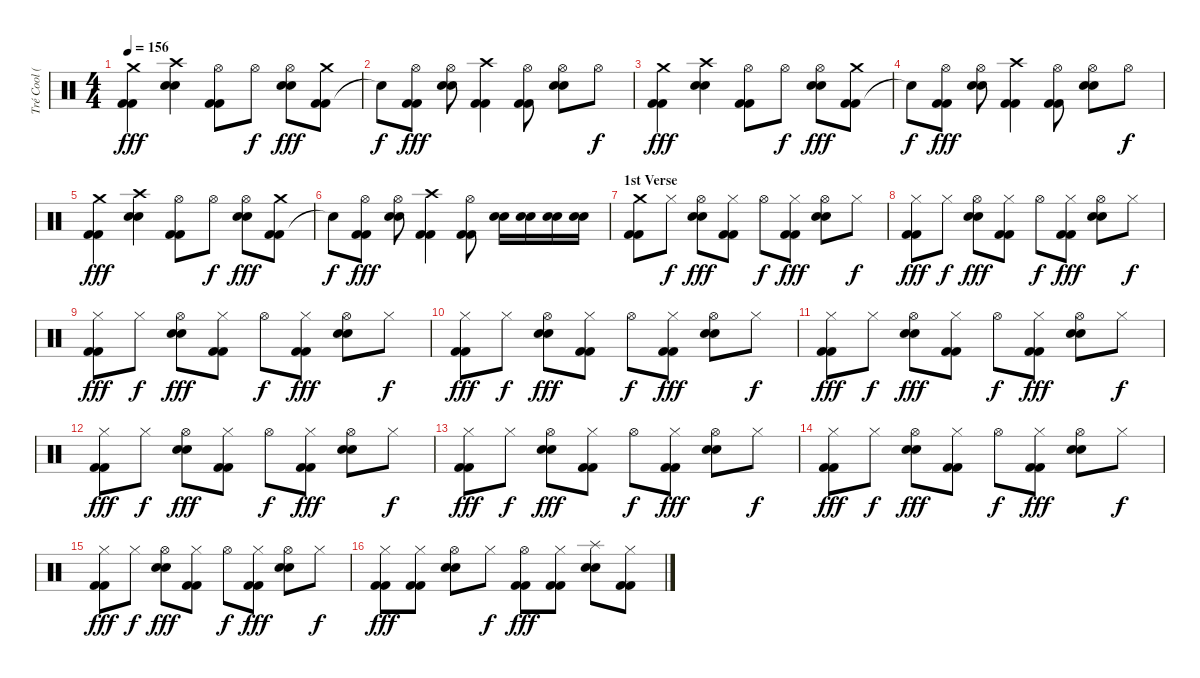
\track ("Tré Cool (Drums)" "Tré Cool (") {instrument percussion}
\staff {score}
\articulation defaults
\ts (4 4)
\tempo 156
\clef neutral
\ks c
("Kick (hit) 2" "Kick (hit) 2" "Crash medium (hit)").4{dy fff} ("Electric Snare (hit)" "Electric Snare (hit)" "Crash high (hit)").4 ("Kick (hit) 2" "Kick (hit) 2" "Hi-Hat (open)").8 "Hi-Hat (open)".8{dy f} ("Electric Snare (hit)" "Electric Snare (hit)" "Hi-Hat (open)").8{dy fff} ("Kick (hit) 2" "Kick (hit) 2" "Crash medium (hit)").8 |
"Snare (hit)"{t}.8{dy f} ("Kick (hit) 2" "Kick (hit) 2" "Hi-Hat (open)").8{dy fff} ("Electric Snare (hit)" "Electric Snare (hit)" "Hi-Hat (open)").8 ("Kick (hit) 2" "Kick (hit) 2" "Crash high (hit)").4 ("Kick (hit) 2" "Kick (hit) 2" "Hi-Hat (open)").8 ("Electric Snare (hit)" "Electric Snare (hit)" "Hi-Hat (open)").8 "Hi-Hat (open)".8{dy f} |
("Kick (hit) 2" "Kick (hit) 2" "Crash medium (hit)").4{dy fff} ("Electric Snare (hit)" "Electric Snare (hit)" "Crash high (hit)").4 ("Kick (hit) 2" "Kick (hit) 2" "Hi-Hat (open)").8 "Hi-Hat (open)".8{dy f} ("Electric Snare (hit)" "Electric Snare (hit)" "Hi-Hat (open)").8{dy fff} ("Kick (hit) 2" "Kick (hit) 2" "Crash medium (hit)").8 |
"Snare (hit)"{t}.8{dy f} ("Kick (hit) 2" "Kick (hit) 2" "Hi-Hat (open)").8{dy fff} ("Electric Snare (hit)" "Electric Snare (hit)" "Hi-Hat (open)").8 ("Kick (hit) 2" "Kick (hit) 2" "Crash high (hit)").4 ("Kick (hit) 2" "Kick (hit) 2" "Hi-Hat (open)").8 ("Electric Snare (hit)" "Electric Snare (hit)" "Hi-Hat (open)").8 "Hi-Hat (open)".8{dy f} |
("Kick (hit) 2" "Kick (hit) 2" "Crash medium (hit)").4{dy fff} ("Electric Snare (hit)" "Electric Snare (hit)" "Crash high (hit)").4 ("Kick (hit) 2" "Kick (hit) 2" "Hi-Hat (open)").8 "Hi-Hat (open)".8{dy f} ("Electric Snare (hit)" "Electric Snare (hit)" "Hi-Hat (open)").8{dy fff} ("Kick (hit) 2" "Kick (hit) 2" "Crash medium (hit)").8 |
"Snare (hit)"{t}.8{dy f} ("Kick (hit) 2" "Kick (hit) 2" "Hi-Hat (open)").8{dy fff} ("Electric Snare (hit)" "Electric Snare (hit)" "Hi-Hat (open)").8 ("Kick (hit) 2" "Kick (hit) 2" "Crash high (hit)").4 ("Kick (hit) 2" "Kick (hit) 2" "Hi-Hat (open)").8 ("Electric Snare (hit)" "Electric Snare (hit)").16 ("Electric Snare (hit)" "Electric Snare (hit)").16 ("Electric Snare (hit)" "Electric Snare (hit)").16 ("Electric Snare (hit)" "Electric Snare (hit)").16 |
\section ("" "1st Verse")
("Kick (hit) 2" "Kick (hit) 2" "Crash medium (hit)").8 "Hi-Hat (closed)".8{dy f} ("Electric Snare (hit)" "Electric Snare (hit)" "Hi-Hat (open)").8{dy fff} ("Kick (hit) 2" "Kick (hit) 2" "Hi-Hat (closed)").8 "Hi-Hat (open)".8{dy f} ("Kick (hit) 2" "Kick (hit) 2" "Hi-Hat (closed)").8{dy fff} ("Electric Snare (hit)" "Electric Snare (hit)" "Hi-Hat (open)").8 "Hi-Hat (closed)".8{dy f} |
("Kick (hit) 2" "Kick (hit) 2" "Hi-Hat (closed)").8{dy fff} "Hi-Hat (closed)".8{dy f} ("Electric Snare (hit)" "Electric Snare (hit)" "Hi-Hat (open)").8{dy fff} ("Kick (hit) 2" "Kick (hit) 2" "Hi-Hat (closed)").8 "Hi-Hat (open)".8{dy f} ("Kick (hit) 2" "Kick (hit) 2" "Hi-Hat (closed)").8{dy fff} ("Electric Snare (hit)" "Electric Snare (hit)" "Hi-Hat (open)").8 "Hi-Hat (closed)".8{dy f} |
("Kick (hit) 2" "Kick (hit) 2" "Hi-Hat (closed)").8{dy fff} "Hi-Hat (closed)".8{dy f} ("Electric Snare (hit)" "Electric Snare (hit)" "Hi-Hat (open)").8{dy fff} ("Kick (hit) 2" "Kick (hit) 2" "Hi-Hat (closed)").8 "Hi-Hat (open)".8{dy f} ("Kick (hit) 2" "Kick (hit) 2" "Hi-Hat (closed)").8{dy fff} ("Electric Snare (hit)" "Electric Snare (hit)" "Hi-Hat (open)").8 "Hi-Hat (closed)".8{dy f} |
("Kick (hit) 2" "Kick (hit) 2" "Hi-Hat (closed)").8{dy fff} "Hi-Hat (closed)".8{dy f} ("Electric Snare (hit)" "Electric Snare (hit)" "Hi-Hat (open)").8{dy fff} ("Kick (hit) 2" "Kick (hit) 2" "Hi-Hat (closed)").8 "Hi-Hat (open)".8{dy f} ("Kick (hit) 2" "Kick (hit) 2" "Hi-Hat (closed)").8{dy fff} ("Electric Snare (hit)" "Electric Snare (hit)" "Hi-Hat (open)").8 "Hi-Hat (closed)".8{dy f} |
("Kick (hit) 2" "Kick (hit) 2" "Hi-Hat (closed)").8{dy fff} "Hi-Hat (closed)".8{dy f} ("Electric Snare (hit)" "Electric Snare (hit)" "Hi-Hat (open)").8{dy fff} ("Kick (hit) 2" "Kick (hit) 2" "Hi-Hat (closed)").8 "Hi-Hat (open)".8{dy f} ("Kick (hit) 2" "Kick (hit) 2" "Hi-Hat (closed)").8{dy fff} ("Electric Snare (hit)" "Electric Snare (hit)" "Hi-Hat (open)").8 "Hi-Hat (closed)".8{dy f} |
("Kick (hit) 2" "Kick (hit) 2" "Hi-Hat (closed)").8{dy fff} "Hi-Hat (closed)".8{dy f} ("Electric Snare (hit)" "Electric Snare (hit)" "Hi-Hat (open)").8{dy fff} ("Kick (hit) 2" "Kick (hit) 2" "Hi-Hat (closed)").8 "Hi-Hat (open)".8{dy f} ("Kick (hit) 2" "Kick (hit) 2" "Hi-Hat (closed)").8{dy fff} ("Electric Snare (hit)" "Electric Snare (hit)" "Hi-Hat (open)").8 "Hi-Hat (closed)".8{dy f} |
("Kick (hit) 2" "Kick (hit) 2" "Hi-Hat (closed)").8{dy fff} "Hi-Hat (closed)".8{dy f} ("Electric Snare (hit)" "Electric Snare (hit)" "Hi-Hat (open)").8{dy fff} ("Kick (hit) 2" "Kick (hit) 2" "Hi-Hat (closed)").8 "Hi-Hat (open)".8{dy f} ("Kick (hit) 2" "Kick (hit) 2" "Hi-Hat (closed)").8{dy fff} ("Electric Snare (hit)" "Electric Snare (hit)" "Hi-Hat (open)").8 "Hi-Hat (closed)".8{dy f} |
("Kick (hit) 2" "Kick (hit) 2" "Hi-Hat (closed)").8{dy fff} "Hi-Hat (closed)".8{dy f} ("Electric Snare (hit)" "Electric Snare (hit)" "Hi-Hat (open)").8{dy fff} ("Kick (hit) 2" "Kick (hit) 2" "Hi-Hat (closed)").8 "Hi-Hat (open)".8{dy f} ("Kick (hit) 2" "Kick (hit) 2" "Hi-Hat (closed)").8{dy fff} ("Electric Snare (hit)" "Electric Snare (hit)" "Hi-Hat (open)").8 "Hi-Hat (closed)".8{dy f} |
("Kick (hit) 2" "Kick (hit) 2" "Hi-Hat (closed)").8{dy fff} "Hi-Hat (closed)".8{dy f} ("Electric Snare (hit)" "Electric Snare (hit)" "Hi-Hat (open)").8{dy fff} ("Kick (hit) 2" "Kick (hit) 2" "Hi-Hat (closed)").8 "Hi-Hat (open)".8{dy f} ("Kick (hit) 2" "Kick (hit) 2" "Hi-Hat (closed)").8{dy fff} ("Electric Snare (hit)" "Electric Snare (hit)" "Hi-Hat (open)").8 "Hi-Hat (closed)".8{dy f} |
("Kick (hit) 2" "Kick (hit) 2" "Hi-Hat (closed)").8{dy fff} ("Kick (hit) 2" "Kick (hit) 2" "Hi-Hat (closed)").8 ("Electric Snare (hit)" "Electric Snare (hit)" "Hi-Hat (open)").8 "Hi-Hat (closed)".8{dy f} ("Kick (hit) 2" "Kick (hit) 2" "Hi-Hat (open)").8{dy fff} ("Kick (hit) 2" "Kick (hit) 2" "Hi-Hat (closed)").8 ("Electric Snare (hit)" "Electric Snare (hit)" "Splash (hit)").8 ("Kick (hit) 2" "Kick (hit) 2" "Hi-Hat (closed)").8
